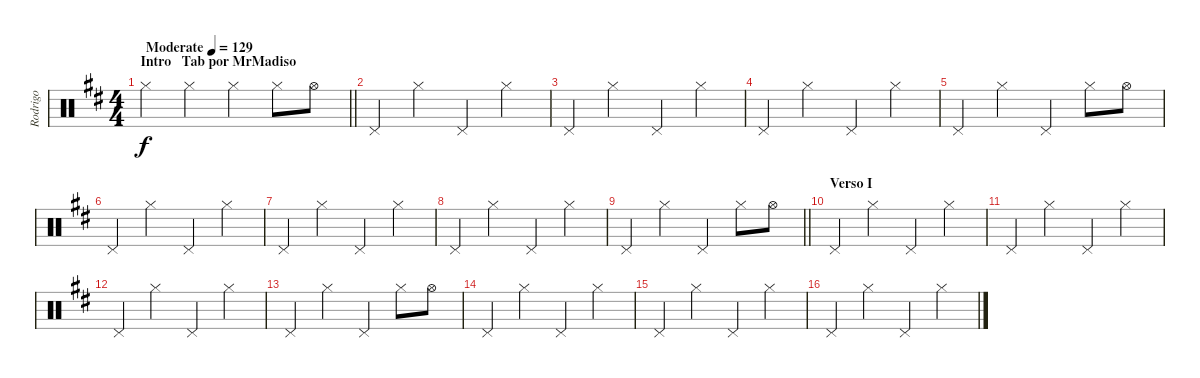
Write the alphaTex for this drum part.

\track ("Rodrigo " "Rodrigo ") {instrument percussion}
\staff {score}
\articulation defaults
\ts (4 4)
\section ("" "Intro   Tab por MrMadiso")
\tempo (129 "Moderate")
\clef neutral
\barLineRight lightlight
\ks d "Hi-Hat (closed)".4{dy f} "Hi-Hat (closed)".4 "Hi-Hat (closed)".4 "Hi-Hat (closed)".8 "Hi-Hat (open)".8
|
"Pedal Hi-Hat (hit)".4 "Hi-Hat (closed)".4 "Pedal Hi-Hat (hit)".4 "Hi-Hat (closed)".4 |
"Pedal Hi-Hat (hit)".4 "Hi-Hat (closed)".4 "Pedal Hi-Hat (hit)".4 "Hi-Hat (closed)".4 |
"Pedal Hi-Hat (hit)".4 "Hi-Hat (closed)".4 "Pedal Hi-Hat (hit)".4 "Hi-Hat (closed)".4 |
"Pedal Hi-Hat (hit)".4 "Hi-Hat (closed)".4 "Pedal Hi-Hat (hit)".4 "Hi-Hat (closed)".8 "Hi-Hat (open)".8 |
"Pedal Hi-Hat (hit)".4 "Hi-Hat (closed)".4 "Pedal Hi-Hat (hit)".4 "Hi-Hat (closed)".4 |
"Pedal Hi-Hat (hit)".4 "Hi-Hat (closed)".4 "Pedal Hi-Hat (hit)".4 "Hi-Hat (closed)".4 |
"Pedal Hi-Hat (hit)".4 "Hi-Hat (closed)".4 "Pedal Hi-Hat (hit)".4 "Hi-Hat (closed)".4 |
\barLineRight lightlight "Pedal Hi-Hat (hit)".4 "Hi-Hat (closed)".4 "Pedal Hi-Hat (hit)".4 "Hi-Hat (closed)".8 "Hi-Hat (open)".8
|
\section ("" "Verso I")
"Pedal Hi-Hat (hit)".4 "Hi-Hat (closed)".4 "Pedal Hi-Hat (hit)".4 "Hi-Hat (closed)".4 |
"Pedal Hi-Hat (hit)".4 "Hi-Hat (closed)".4 "Pedal Hi-Hat (hit)".4 "Hi-Hat (closed)".4 |
"Pedal Hi-Hat (hit)".4 "Hi-Hat (closed)".4 "Pedal Hi-Hat (hit)".4 "Hi-Hat (closed)".4 |
"Pedal Hi-Hat (hit)".4 "Hi-Hat (closed)".4 "Pedal Hi-Hat (hit)".4 "Hi-Hat (closed)".8 "Hi-Hat (open)".8 |
"Pedal Hi-Hat (hit)".4 "Hi-Hat (closed)".4 "Pedal Hi-Hat (hit)".4 "Hi-Hat (closed)".4 |
"Pedal Hi-Hat (hit)".4 "Hi-Hat (closed)".4 "Pedal Hi-Hat (hit)".4 "Hi-Hat (closed)".4 |
"Pedal Hi-Hat (hit)".4 "Hi-Hat (closed)".4 "Pedal Hi-Hat (hit)".4 "Hi-Hat (closed)".4
